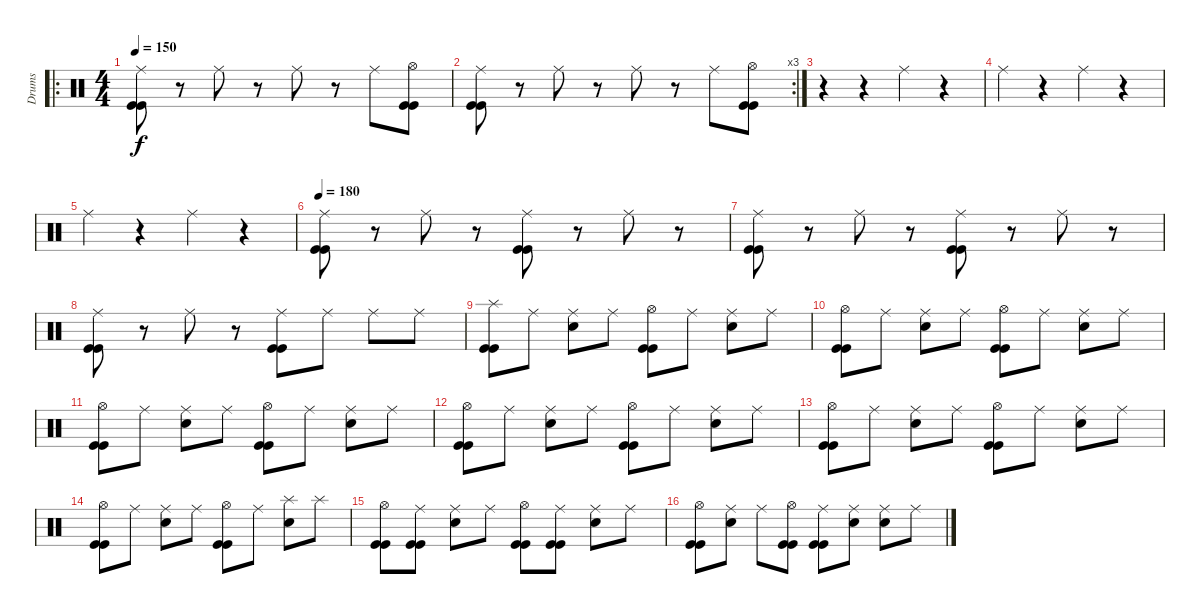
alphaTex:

\track ("Drums" "Drums") {instrument percussion}
\staff {score}
\articulation defaults
\ro
\ts (4 4)
\tempo 150
\clef neutral
\ks c
("Ride (middle)" "Kick (hit)" "Kick (hit)").8{dy f} r.8 "Ride (middle)".8 r.8 "Ride (middle)".8 r.8 "Ride (middle)".8 ("Hi-Hat (open)" "Kick (hit)" "Kick (hit)").8 |
\rc 3
("Ride (middle)" "Kick (hit)" "Kick (hit)").8 r.8 "Ride (middle)".8 r.8 "Ride (middle)".8 r.8 "Ride (middle)".8 ("Hi-Hat (open)" "Kick (hit)" "Kick (hit)").8 |
r.4 r.4 "Ride (middle)".4 r.4 |
"Ride (middle)".4 r.4 "Ride (middle)".4 r.4 |
"Ride (middle)".4 r.4 "Ride (middle)".4 r.4 |
\tempo 180
("Ride (middle)" "Kick (hit)" "Kick (hit)").8 r.8 "Ride (middle)".8 r.8 ("Ride (middle)" "Kick (hit)" "Kick (hit)").8 r.8 "Ride (middle)".8 r.8 |
("Ride (middle)" "Kick (hit)" "Kick (hit)").8 r.8 "Ride (middle)".8 r.8 ("Ride (middle)" "Kick (hit)" "Kick (hit)").8 r.8 "Ride (middle)".8 r.8 |
("Ride (middle)" "Kick (hit)" "Kick (hit)").8 r.8 "Ride (middle)".8 r.8 ("Ride (middle)" "Kick (hit)" "Kick (hit)").8 "Ride (middle)".8 "Ride (middle)".8 "Ride (middle)".8 |
("Splash (hit)" "Kick (hit)" "Kick (hit)").8 "Ride (middle)".8 ("Ride (middle)" "Snare (hit) 2").8 "Ride (middle)".8 ("Hi-Hat (open)" "Kick (hit)" "Kick (hit)").8 "Ride (middle)".8 ("Ride (middle)" "Snare (hit) 2").8 "Ride (middle)".8 |
("Hi-Hat (open)" "Kick (hit)" "Kick (hit)").8 "Ride (middle)".8 ("Ride (middle)" "Snare (hit) 2").8 "Ride (middle)".8 ("Hi-Hat (open)" "Kick (hit)" "Kick (hit)").8 "Ride (middle)".8 ("Ride (middle)" "Snare (hit) 2").8 "Ride (middle)".8 |
("Hi-Hat (open)" "Kick (hit)" "Kick (hit)").8 "Ride (middle)".8 ("Ride (middle)" "Snare (hit) 2").8 "Ride (middle)".8 ("Hi-Hat (open)" "Kick (hit)" "Kick (hit)").8 "Ride (middle)".8 ("Ride (middle)" "Snare (hit) 2").8 "Ride (middle)".8 |
("Hi-Hat (open)" "Kick (hit)" "Kick (hit)").8 "Ride (middle)".8 ("Ride (middle)" "Snare (hit) 2").8 "Ride (middle)".8 ("Hi-Hat (open)" "Kick (hit)" "Kick (hit)").8 "Ride (middle)".8 ("Ride (middle)" "Snare (hit) 2").8 "Ride (middle)".8 |
("Hi-Hat (open)" "Kick (hit)" "Kick (hit)").8 "Ride (middle)".8 ("Ride (middle)" "Snare (hit) 2").8 "Ride (middle)".8 ("Hi-Hat (open)" "Kick (hit)" "Kick (hit)").8 "Ride (middle)".8 ("Ride (middle)" "Snare (hit) 2").8 "Ride (middle)".8 |
("Hi-Hat (open)" "Kick (hit)" "Kick (hit)").8 "Ride (middle)".8 ("Ride (middle)" "Snare (hit) 2").8 "Ride (middle)".8 ("Hi-Hat (open)" "Kick (hit)" "Kick (hit)").8 "Ride (middle)".8 ("Splash (hit)" "Snare (hit) 2").8 "Splash (hit)".8 |
("Hi-Hat (open)" "Kick (hit)" "Kick (hit)").8 ("Ride (middle)" "Kick (hit)" "Kick (hit)").8 ("Ride (middle)" "Snare (hit) 2").8 "Ride (middle)".8 ("Hi-Hat (open)" "Kick (hit)" "Kick (hit)").8 ("Ride (middle)" "Kick (hit)" "Kick (hit)").8 ("Ride (middle)" "Snare (hit) 2").8 "Ride (middle)".8 |
("Hi-Hat (open)" "Kick (hit)" "Kick (hit)").8 ("Ride (middle)" "Snare (hit) 2").8 "Ride (middle)".8 ("Hi-Hat (open)" "Kick (hit)" "Kick (hit)").8 ("Ride (middle)" "Kick (hit)" "Kick (hit)").8 ("Ride (middle)" "Snare (hit) 2").8 ("Ride (middle)" "Snare (hit) 2").8 "Ride (middle)".8
